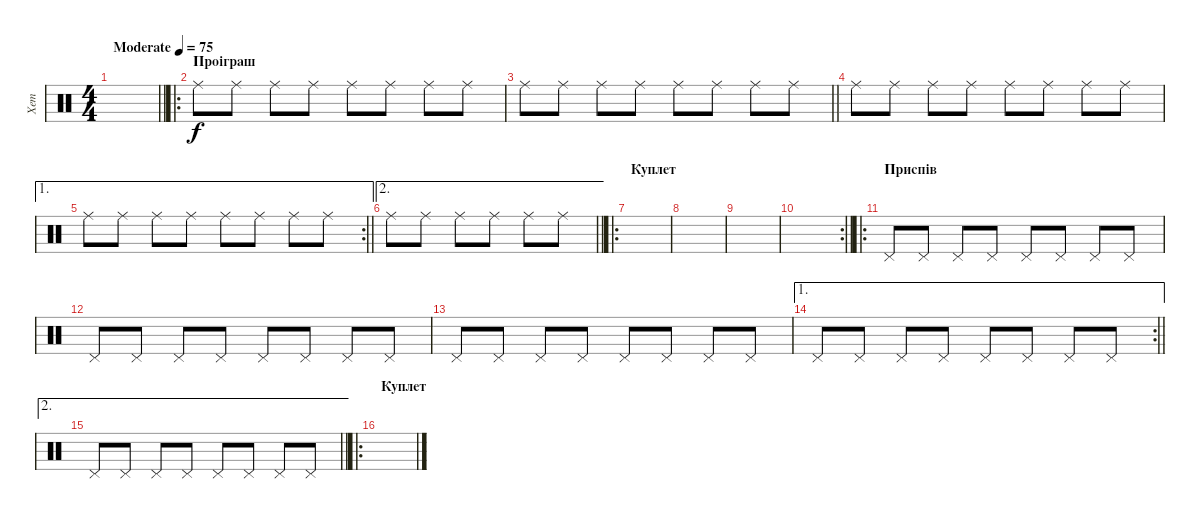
\track ("Хет" "Хет") {instrument percussion}
\staff {score}
\articulation defaults
\ts (4 4)
\tempo (75 "Moderate")
\clef neutral
\barLineRight lightlight
\ks c
|
\ro
\section ("" "Проіграш")
"Ride (middle)".8 "Ride (middle)".8 "Ride (middle)".8 "Ride (middle)".8 "Ride (middle)".8 "Ride (middle)".8 "Ride (middle)".8 "Ride (middle)".8 |
\barLineRight lightlight "Ride (middle)".8 "Ride (middle)".8 "Ride (middle)".8 "Ride (middle)".8 "Ride (middle)".8 "Ride (middle)".8 "Ride (middle)".8 "Ride (middle)".8
|
"Ride (middle)".8 "Ride (middle)".8 "Ride (middle)".8 "Ride (middle)".8 "Ride (middle)".8 "Ride (middle)".8 "Ride (middle)".8 "Ride (middle)".8 |
\ae 1
\rc 2
\barLineRight lightlight "Ride (middle)".8 "Ride (middle)".8 "Ride (middle)".8 "Ride (middle)".8 "Ride (middle)".8 "Ride (middle)".8 "Ride (middle)".8 "Ride (middle)".8
|
\ae 2
\barLineRight lightlight "Ride (middle)".8 "Ride (middle)".8 "Ride (middle)".8 "Ride (middle)".8 "Ride (middle)".8 "Ride (middle)".8
|
\ro
\section ("" "Куплет")
|
|
|
\rc 2
\barLineRight lightlight
|
\ro
\section ("" "Приспів")
"Pedal Hi-Hat (hit)".8 "Pedal Hi-Hat (hit)".8 "Pedal Hi-Hat (hit)".8 "Pedal Hi-Hat (hit)".8 "Pedal Hi-Hat (hit)".8 "Pedal Hi-Hat (hit)".8 "Pedal Hi-Hat (hit)".8 "Pedal Hi-Hat (hit)".8 |
"Pedal Hi-Hat (hit)".8 "Pedal Hi-Hat (hit)".8 "Pedal Hi-Hat (hit)".8 "Pedal Hi-Hat (hit)".8 "Pedal Hi-Hat (hit)".8 "Pedal Hi-Hat (hit)".8 "Pedal Hi-Hat (hit)".8 "Pedal Hi-Hat (hit)".8 |
"Pedal Hi-Hat (hit)".8 "Pedal Hi-Hat (hit)".8 "Pedal Hi-Hat (hit)".8 "Pedal Hi-Hat (hit)".8 "Pedal Hi-Hat (hit)".8 "Pedal Hi-Hat (hit)".8 "Pedal Hi-Hat (hit)".8 "Pedal Hi-Hat (hit)".8 |
\ae 1
\rc 2
\barLineRight lightlight "Pedal Hi-Hat (hit)".8 "Pedal Hi-Hat (hit)".8 "Pedal Hi-Hat (hit)".8 "Pedal Hi-Hat (hit)".8 "Pedal Hi-Hat (hit)".8 "Pedal Hi-Hat (hit)".8 "Pedal Hi-Hat (hit)".8 "Pedal Hi-Hat (hit)".8
|
\ae 2
\barLineRight lightlight "Pedal Hi-Hat (hit)".8 "Pedal Hi-Hat (hit)".8 "Pedal Hi-Hat (hit)".8 "Pedal Hi-Hat (hit)".8 "Pedal Hi-Hat (hit)".8 "Pedal Hi-Hat (hit)".8 "Pedal Hi-Hat (hit)".8 "Pedal Hi-Hat (hit)".8
|
\ro
\section ("" "Куплет")
